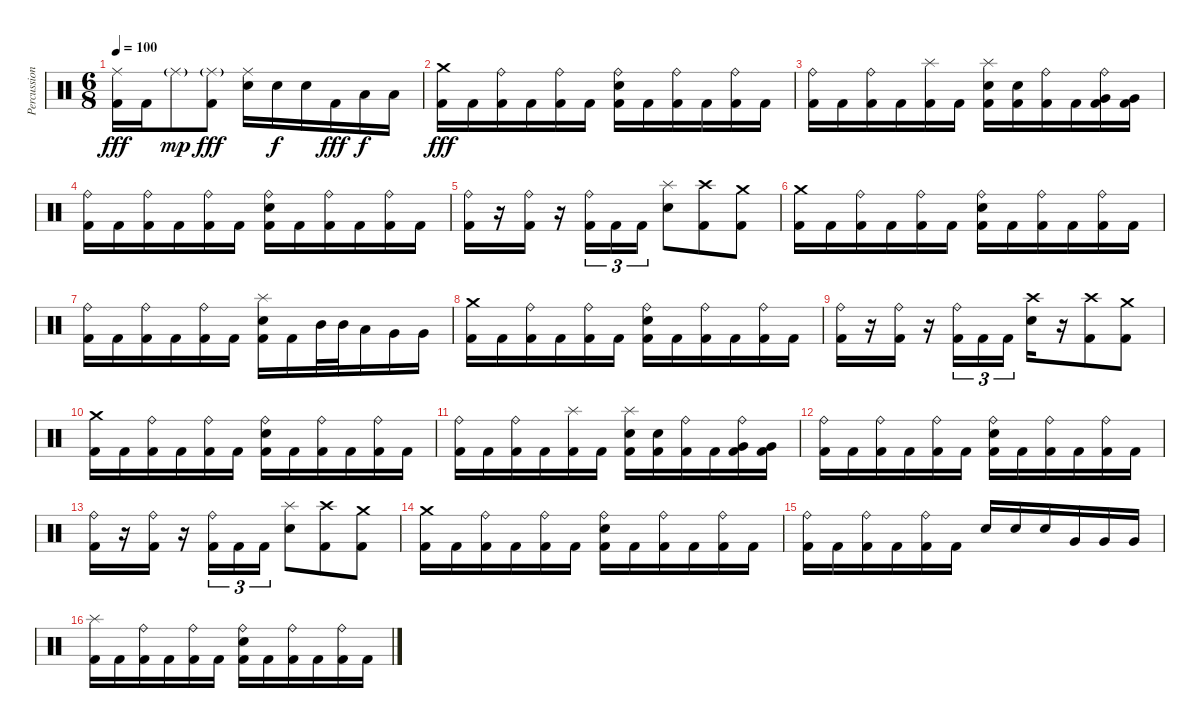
\track ("Percussion" "Percussion") {instrument percussion}
\staff {score}
\articulation defaults
\ts (6 8)
\tempo 100
\clef neutral
\ks c
("Ride (middle)" "Kick (hit) 2").16{dy fff} "Kick (hit) 2".16 "Ride (middle)"{g}.8{dy mp} ("Ride (middle)"{g} "Kick (hit) 2").8{dy fff} ("Ride (middle)" "Electric Snare (hit)").16 "Electric Snare (hit)".16{dy f} "Electric Snare (hit)".16 "Kick (hit) 2".16{dy fff} "Low Tom (hit)".16{dy f} "Low Tom (hit)".16 |
("Crash medium (hit)" "Kick (hit) 2").16{dy fff} "Kick (hit) 2".16 ("Ride (bell)" "Kick (hit) 2").16 "Kick (hit) 2".16 ("Ride (bell)" "Kick (hit) 2").16 "Kick (hit) 2".16 ("Ride (bell)" "Electric Snare (hit)" "Kick (hit) 2").16 "Kick (hit) 2".16 ("Ride (bell)" "Kick (hit) 2").16 "Kick (hit) 2".16 ("Ride (bell)" "Kick (hit) 2").16 "Kick (hit) 2".16 |
("Ride (bell)" "Kick (hit) 2").16 "Kick (hit) 2".16 ("Ride (bell)" "Kick (hit) 2").16 "Kick (hit) 2".16 ("Splash (hit)" "Kick (hit) 2").16 "Kick (hit) 2".16 ("Splash (hit)" "Electric Snare (hit)" "Kick (hit) 2").16 ("Electric Snare (hit)" "Kick (hit) 2").16 ("Ride (bell)" "Kick (hit) 2").16 "Kick (hit) 2".16 ("Ride (bell)" "Very Low Tom (hit)" "Kick (hit) 2").16 ("Very Low Tom (hit)" "Kick (hit) 2").16 |
("Ride (bell)" "Kick (hit) 2").16 "Kick (hit) 2".16 ("Ride (bell)" "Kick (hit) 2").16 "Kick (hit) 2".16 ("Ride (bell)" "Kick (hit) 2").16 "Kick (hit) 2".16 ("Ride (bell)" "Electric Snare (hit)" "Kick (hit) 2").16 "Kick (hit) 2".16 ("Ride (bell)" "Kick (hit) 2").16 "Kick (hit) 2".16 ("Ride (bell)" "Kick (hit) 2").16 "Kick (hit) 2".16 |
("Ride (bell)" "Kick (hit) 2").16 r.16 ("Ride (bell)" "Kick (hit) 2").16 r.16 ("Ride (bell)" "Kick (hit) 2").16{tu (3 2)} "Kick (hit) 2".16{tu (3 2)} "Kick (hit) 2".16{tu (3 2)} ("Splash (hit)" "Electric Snare (hit)").8 ("Crash high (hit)" "Kick (hit) 2").8 ("Crash medium (hit)" "Kick (hit) 2").8 |
("Crash medium (hit)" "Kick (hit) 2").16 "Kick (hit) 2".16 ("Ride (bell)" "Kick (hit) 2").16 "Kick (hit) 2".16 ("Ride (bell)" "Kick (hit) 2").16 "Kick (hit) 2".16 ("Ride (bell)" "Electric Snare (hit)" "Kick (hit) 2").16 "Kick (hit) 2".16 ("Ride (bell)" "Kick (hit) 2").16 "Kick (hit) 2".16 ("Ride (bell)" "Kick (hit) 2").16 "Kick (hit) 2".16 |
("Ride (bell)" "Kick (hit) 2").16 "Kick (hit) 2".16 ("Ride (bell)" "Kick (hit) 2").16 "Kick (hit) 2".16 ("Ride (bell)" "Kick (hit) 2").16 "Kick (hit) 2".16 ("Splash (hit)" "Electric Snare (hit)" "Kick (hit) 2").16 "Kick (hit) 2".16 "Mid Tom (hit)".32 "Mid Tom (hit)".32 "Low Tom (hit)".16 "Very Low Tom (hit)".16 "Very Low Tom (hit)".16 |
("Crash medium (hit)" "Kick (hit) 2").16 "Kick (hit) 2".16 ("Ride (bell)" "Kick (hit) 2").16 "Kick (hit) 2".16 ("Ride (bell)" "Kick (hit) 2").16 "Kick (hit) 2".16 ("Ride (bell)" "Electric Snare (hit)" "Kick (hit) 2").16 "Kick (hit) 2".16 ("Ride (bell)" "Kick (hit) 2").16 "Kick (hit) 2".16 ("Ride (bell)" "Kick (hit) 2").16 "Kick (hit) 2".16 |
("Ride (bell)" "Kick (hit) 2").16 r.16 ("Ride (bell)" "Kick (hit) 2").16 r.16 ("Ride (bell)" "Kick (hit) 2").16{tu (3 2)} "Kick (hit) 2".16{tu (3 2)} "Kick (hit) 2".16{tu (3 2)} ("Crash high (hit)" "Electric Snare (hit)").16 r.16 ("Crash high (hit)" "Kick (hit) 2").8 ("Crash medium (hit)" "Kick (hit) 2").8 |
("Crash medium (hit)" "Kick (hit) 2").16 "Kick (hit) 2".16 ("Ride (bell)" "Kick (hit) 2").16 "Kick (hit) 2".16 ("Ride (bell)" "Kick (hit) 2").16 "Kick (hit) 2".16 ("Ride (bell)" "Electric Snare (hit)" "Kick (hit) 2").16 "Kick (hit) 2".16 ("Ride (bell)" "Kick (hit) 2").16 "Kick (hit) 2".16 ("Ride (bell)" "Kick (hit) 2").16 "Kick (hit) 2".16 |
("Ride (bell)" "Kick (hit) 2").16 "Kick (hit) 2".16 ("Ride (bell)" "Kick (hit) 2").16 "Kick (hit) 2".16 ("Splash (hit)" "Kick (hit) 2").16 "Kick (hit) 2".16 ("Splash (hit)" "Electric Snare (hit)" "Kick (hit) 2").16 ("Electric Snare (hit)" "Kick (hit) 2").16 ("Ride (bell)" "Kick (hit) 2").16 "Kick (hit) 2".16 ("Ride (bell)" "Very Low Tom (hit)" "Kick (hit) 2").16 ("Very Low Tom (hit)" "Kick (hit) 2").16 |
("Ride (bell)" "Kick (hit) 2").16 "Kick (hit) 2".16 ("Ride (bell)" "Kick (hit) 2").16 "Kick (hit) 2".16 ("Ride (bell)" "Kick (hit) 2").16 "Kick (hit) 2".16 ("Ride (bell)" "Electric Snare (hit)" "Kick (hit) 2").16 "Kick (hit) 2".16 ("Ride (bell)" "Kick (hit) 2").16 "Kick (hit) 2".16 ("Ride (bell)" "Kick (hit) 2").16 "Kick (hit) 2".16 |
("Ride (bell)" "Kick (hit) 2").16 r.16 ("Ride (bell)" "Kick (hit) 2").16 r.16 ("Ride (bell)" "Kick (hit) 2").16{tu (3 2)} "Kick (hit) 2".16{tu (3 2)} "Kick (hit) 2".16{tu (3 2)} ("Splash (hit)" "Electric Snare (hit)").8 ("Crash high (hit)" "Kick (hit) 2").8 ("Crash medium (hit)" "Kick (hit) 2").8 |
("Crash medium (hit)" "Kick (hit) 2").16 "Kick (hit) 2".16 ("Ride (bell)" "Kick (hit) 2").16 "Kick (hit) 2".16 ("Ride (bell)" "Kick (hit) 2").16 "Kick (hit) 2".16 ("Ride (bell)" "Electric Snare (hit)" "Kick (hit) 2").16 "Kick (hit) 2".16 ("Ride (bell)" "Kick (hit) 2").16 "Kick (hit) 2".16 ("Ride (bell)" "Kick (hit) 2").16 "Kick (hit) 2".16 |
("Ride (bell)" "Kick (hit) 2").16 "Kick (hit) 2".16 ("Ride (bell)" "Kick (hit) 2").16 "Kick (hit) 2".16 ("Ride (bell)" "Kick (hit) 2").16 "Kick (hit) 2".16 "Electric Snare (hit)".16 "Electric Snare (hit)".16 "Electric Snare (hit)".16 "Very Low Tom (hit)".16 "Very Low Tom (hit)".16 "Very Low Tom (hit)".16 |
("Splash (hit)" "Kick (hit) 2").16 "Kick (hit) 2".16 ("Ride (bell)" "Kick (hit) 2").16 "Kick (hit) 2".16 ("Ride (bell)" "Kick (hit) 2").16 "Kick (hit) 2".16 ("Ride (bell)" "Electric Snare (hit)" "Kick (hit) 2").16 "Kick (hit) 2".16 ("Ride (bell)" "Kick (hit) 2").16 "Kick (hit) 2".16 ("Ride (bell)" "Kick (hit) 2").16 "Kick (hit) 2".16
